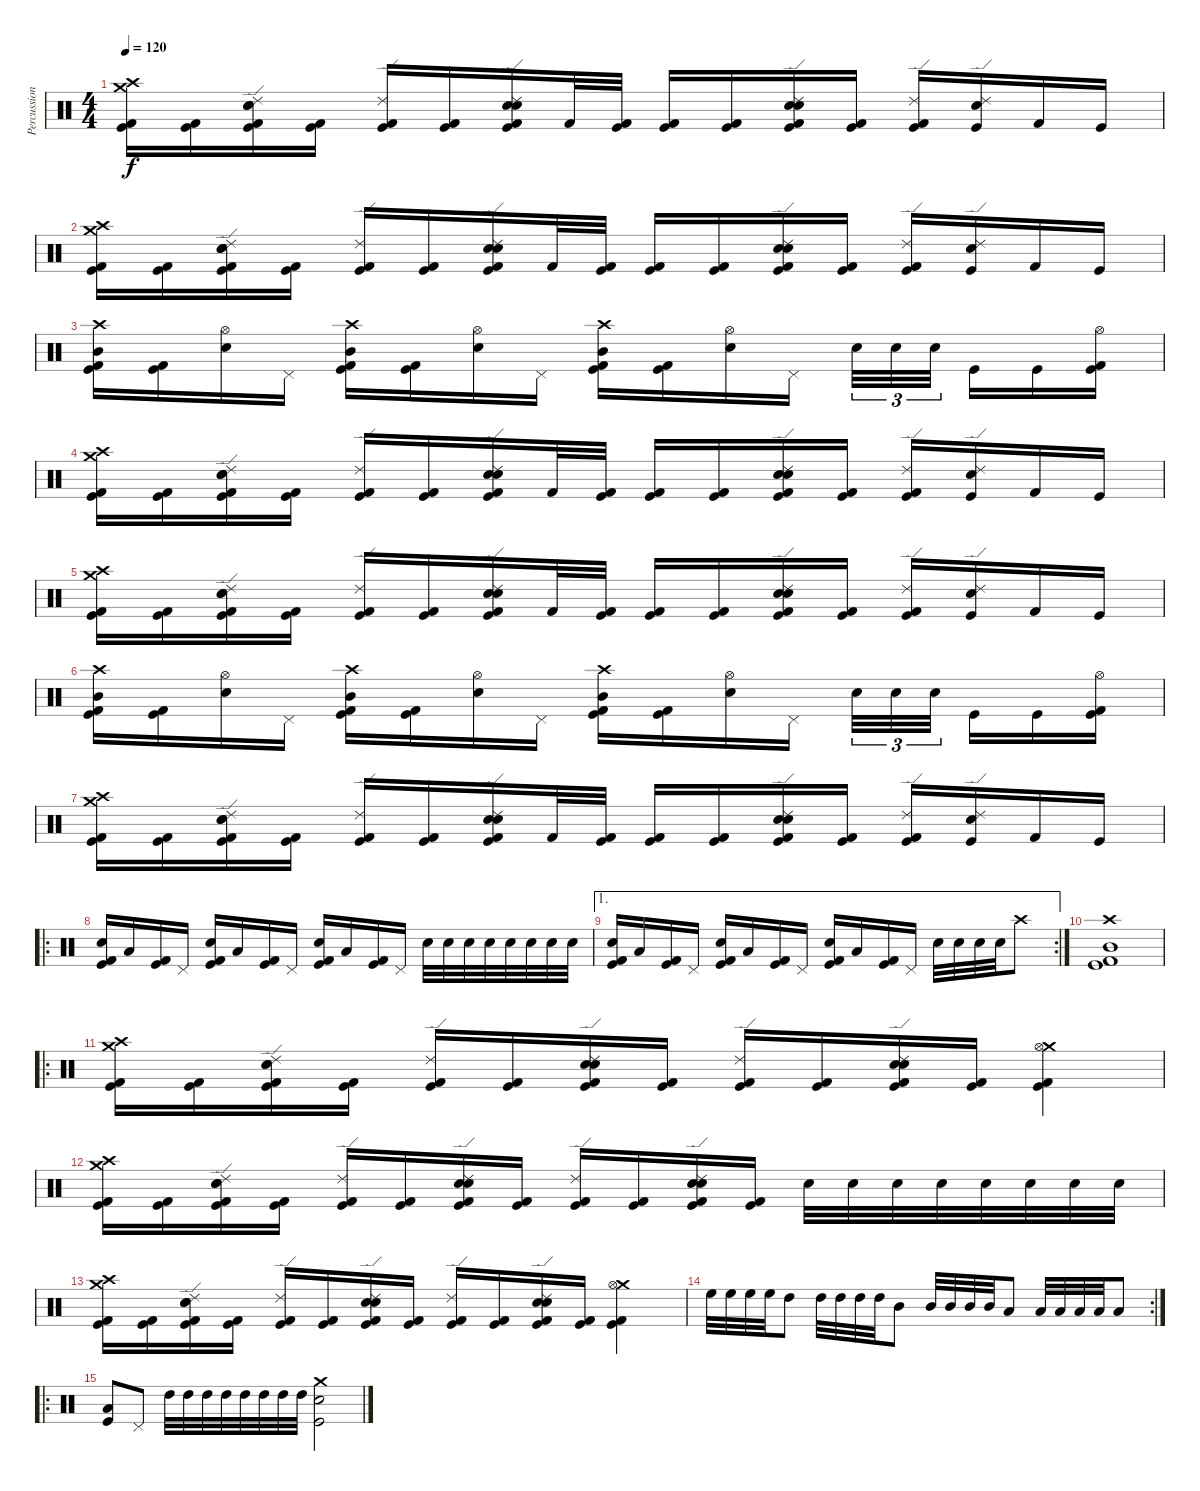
\track ("Percussion" "Percussion") {instrument percussion}
\staff {score}
\articulation defaults
\ts (4 4)
\tempo 120
\clef neutral
\ks c
("Crash high (hit)" "Crash medium (hit)" "Kick (hit) 2" "Kick (hit)").16{dy f} ("Kick (hit) 2" "Kick (hit)").16 ("Ride (edge) 2" "Electric Snare (hit)" "Snare (hit) 2" "Kick (hit) 2" "Kick (hit)").16 ("Kick (hit) 2" "Kick (hit)").16 ("Ride (edge) 2" "Kick (hit) 2" "Kick (hit)").16 ("Kick (hit) 2" "Kick (hit)").16 ("Ride (edge) 2" "Electric Snare (hit)" "Snare (hit) 2" "Kick (hit) 2" "Kick (hit)").16 "Kick (hit) 2".32 ("Kick (hit) 2" "Kick (hit)").32 ("Kick (hit) 2" "Kick (hit)").16 ("Kick (hit) 2" "Kick (hit)").16 ("Ride (edge) 2" "Electric Snare (hit)" "Snare (hit) 2" "Kick (hit) 2" "Kick (hit)").16 ("Kick (hit) 2" "Kick (hit)").16 ("Ride (edge) 2" "Kick (hit) 2" "Kick (hit)").16 ("Snare (hit) 2" "Kick (hit)" "Ride (edge) 2").16 "Kick (hit) 2".16 "Kick (hit)".16 |
("Crash high (hit)" "Crash medium (hit)" "Kick (hit) 2" "Kick (hit)").16 ("Kick (hit) 2" "Kick (hit)").16 ("Ride (edge) 2" "Electric Snare (hit)" "Snare (hit) 2" "Kick (hit) 2" "Kick (hit)").16 ("Kick (hit) 2" "Kick (hit)").16 ("Ride (edge) 2" "Kick (hit) 2" "Kick (hit)").16 ("Kick (hit) 2" "Kick (hit)").16 ("Ride (edge) 2" "Electric Snare (hit)" "Snare (hit) 2" "Kick (hit) 2" "Kick (hit)").16 "Kick (hit) 2".32 ("Kick (hit) 2" "Kick (hit)").32 ("Kick (hit) 2" "Kick (hit)").16 ("Kick (hit) 2" "Kick (hit)").16 ("Ride (edge) 2" "Electric Snare (hit)" "Snare (hit) 2" "Kick (hit) 2" "Kick (hit)").16 ("Kick (hit) 2" "Kick (hit)").16 ("Ride (edge) 2" "Kick (hit) 2" "Kick (hit)").16 ("Snare (hit) 2" "Kick (hit)" "Ride (edge) 2").16 "Kick (hit) 2".16 "Kick (hit)".16 |
("Crash high (hit)" "Mid Tom (hit)" "Kick (hit) 2" "Kick (hit)").16 ("Kick (hit)" "Kick (hit) 2").16 ("Snare (hit) 2" "Hi-Hat (open)").16 "Pedal Hi-Hat (hit)".16 ("Crash high (hit)" "Mid Tom (hit)" "Kick (hit) 2" "Kick (hit)").16 ("Kick (hit)" "Kick (hit) 2").16 ("Snare (hit) 2" "Hi-Hat (open)").16 "Pedal Hi-Hat (hit)".16 ("Crash high (hit)" "Mid Tom (hit)" "Kick (hit) 2" "Kick (hit)").16 ("Kick (hit)" "Kick (hit) 2").16 ("Snare (hit) 2" "Hi-Hat (open)").16 "Pedal Hi-Hat (hit)".16 "Snare (hit) 2".32{tu (3 2)} "Snare (hit) 2".32{tu (3 2)} "Snare (hit) 2".32{tu (3 2)} "Kick (hit)".16 "Kick (hit)".16 ("Kick (hit)" "Hi-Hat (open)" "Kick (hit) 2").16 |
("Crash high (hit)" "Crash medium (hit)" "Kick (hit) 2" "Kick (hit)").16 ("Kick (hit) 2" "Kick (hit)").16 ("Ride (edge) 2" "Electric Snare (hit)" "Snare (hit) 2" "Kick (hit) 2" "Kick (hit)").16 ("Kick (hit) 2" "Kick (hit)").16 ("Ride (edge) 2" "Kick (hit) 2" "Kick (hit)").16 ("Kick (hit) 2" "Kick (hit)").16 ("Ride (edge) 2" "Electric Snare (hit)" "Snare (hit) 2" "Kick (hit) 2" "Kick (hit)").16 "Kick (hit) 2".32 ("Kick (hit) 2" "Kick (hit)").32 ("Kick (hit) 2" "Kick (hit)").16 ("Kick (hit) 2" "Kick (hit)").16 ("Ride (edge) 2" "Electric Snare (hit)" "Snare (hit) 2" "Kick (hit) 2" "Kick (hit)").16 ("Kick (hit) 2" "Kick (hit)").16 ("Ride (edge) 2" "Kick (hit) 2" "Kick (hit)").16 ("Snare (hit) 2" "Kick (hit)" "Ride (edge) 2").16 "Kick (hit) 2".16 "Kick (hit)".16 |
("Crash high (hit)" "Crash medium (hit)" "Kick (hit) 2" "Kick (hit)").16 ("Kick (hit) 2" "Kick (hit)").16 ("Ride (edge) 2" "Electric Snare (hit)" "Snare (hit) 2" "Kick (hit) 2" "Kick (hit)").16 ("Kick (hit) 2" "Kick (hit)").16 ("Ride (edge) 2" "Kick (hit) 2" "Kick (hit)").16 ("Kick (hit) 2" "Kick (hit)").16 ("Ride (edge) 2" "Electric Snare (hit)" "Snare (hit) 2" "Kick (hit) 2" "Kick (hit)").16 "Kick (hit) 2".32 ("Kick (hit) 2" "Kick (hit)").32 ("Kick (hit) 2" "Kick (hit)").16 ("Kick (hit) 2" "Kick (hit)").16 ("Ride (edge) 2" "Electric Snare (hit)" "Snare (hit) 2" "Kick (hit) 2" "Kick (hit)").16 ("Kick (hit) 2" "Kick (hit)").16 ("Ride (edge) 2" "Kick (hit) 2" "Kick (hit)").16 ("Snare (hit) 2" "Kick (hit)" "Ride (edge) 2").16 "Kick (hit) 2".16 "Kick (hit)".16 |
("Crash high (hit)" "Mid Tom (hit)" "Kick (hit) 2" "Kick (hit)").16 ("Kick (hit)" "Kick (hit) 2").16 ("Snare (hit) 2" "Hi-Hat (open)").16 "Pedal Hi-Hat (hit)".16 ("Crash high (hit)" "Mid Tom (hit)" "Kick (hit) 2" "Kick (hit)").16 ("Kick (hit)" "Kick (hit) 2").16 ("Snare (hit) 2" "Hi-Hat (open)").16 "Pedal Hi-Hat (hit)".16 ("Crash high (hit)" "Mid Tom (hit)" "Kick (hit) 2" "Kick (hit)").16 ("Kick (hit)" "Kick (hit) 2").16 ("Snare (hit) 2" "Hi-Hat (open)").16 "Pedal Hi-Hat (hit)".16 "Snare (hit) 2".32{tu (3 2)} "Snare (hit) 2".32{tu (3 2)} "Snare (hit) 2".32{tu (3 2)} "Kick (hit)".16 "Kick (hit)".16 ("Kick (hit)" "Hi-Hat (open)" "Kick (hit) 2").16 |
("Crash high (hit)" "Crash medium (hit)" "Kick (hit) 2" "Kick (hit)").16 ("Kick (hit) 2" "Kick (hit)").16 ("Ride (edge) 2" "Electric Snare (hit)" "Snare (hit) 2" "Kick (hit) 2" "Kick (hit)").16 ("Kick (hit) 2" "Kick (hit)").16 ("Ride (edge) 2" "Kick (hit) 2" "Kick (hit)").16 ("Kick (hit) 2" "Kick (hit)").16 ("Ride (edge) 2" "Electric Snare (hit)" "Snare (hit) 2" "Kick (hit) 2" "Kick (hit)").16 "Kick (hit) 2".32 ("Kick (hit) 2" "Kick (hit)").32 ("Kick (hit) 2" "Kick (hit)").16 ("Kick (hit) 2" "Kick (hit)").16 ("Ride (edge) 2" "Electric Snare (hit)" "Snare (hit) 2" "Kick (hit) 2" "Kick (hit)").16 ("Kick (hit) 2" "Kick (hit)").16 ("Ride (edge) 2" "Kick (hit) 2" "Kick (hit)").16 ("Snare (hit) 2" "Kick (hit)" "Ride (edge) 2").16 "Kick (hit) 2".16 "Kick (hit)".16 |
\ro
("Kick (hit)" "Kick (hit) 2" "Snare (hit) 2").16 "Low Tom (hit)".16 ("Kick (hit)" "Kick (hit) 2").16 "Pedal Hi-Hat (hit)".16 ("Kick (hit)" "Kick (hit) 2" "Snare (hit) 2").16 "Low Tom (hit)".16 ("Kick (hit)" "Kick (hit) 2").16 "Pedal Hi-Hat (hit)".16 ("Kick (hit)" "Kick (hit) 2" "Snare (hit) 2").16 "Low Tom (hit)".16 ("Kick (hit)" "Kick (hit) 2").16 "Pedal Hi-Hat (hit)".16 "Snare (hit) 2".32 "Snare (hit) 2".32 "Snare (hit) 2".32 "Snare (hit) 2".32 "Snare (hit) 2".32 "Snare (hit) 2".32 "Snare (hit) 2".32 "Snare (hit) 2".32 |
\ae 1
\rc 2
("Kick (hit)" "Kick (hit) 2" "Snare (hit) 2").16 "Low Tom (hit)".16 ("Kick (hit)" "Kick (hit) 2").16 "Pedal Hi-Hat (hit)".16 ("Kick (hit)" "Kick (hit) 2" "Snare (hit) 2").16 "Low Tom (hit)".16 ("Kick (hit)" "Kick (hit) 2").16 "Pedal Hi-Hat (hit)".16 ("Kick (hit)" "Kick (hit) 2" "Snare (hit) 2").16 "Low Tom (hit)".16 ("Kick (hit)" "Kick (hit) 2").16 "Pedal Hi-Hat (hit)".16 "Snare (hit) 2".32 "Snare (hit) 2".32 "Snare (hit) 2".32 "Snare (hit) 2".32 "Crash high (hit)".8 |
("Crash high (hit)" "Kick (hit)" "Kick (hit) 2" "Mid Tom (hit)").1 |
\ro
("Crash high (hit)" "Crash medium (hit)" "Kick (hit) 2" "Kick (hit)").16 ("Kick (hit) 2" "Kick (hit)").16 ("Ride (edge) 2" "Electric Snare (hit)" "Snare (hit) 2" "Kick (hit) 2" "Kick (hit)").16 ("Kick (hit) 2" "Kick (hit)").16 ("Ride (edge) 2" "Kick (hit) 2" "Kick (hit)").16 ("Kick (hit) 2" "Kick (hit)").16 ("Ride (edge) 2" "Electric Snare (hit)" "Snare (hit) 2" "Kick (hit) 2" "Kick (hit)").16 ("Kick (hit) 2" "Kick (hit)").16 ("Ride (edge) 2" "Kick (hit) 2" "Kick (hit)").16 ("Kick (hit) 2" "Kick (hit)").16 ("Ride (edge) 2" "Electric Snare (hit)" "Snare (hit) 2" "Kick (hit) 2" "Kick (hit)").16 ("Kick (hit) 2" "Kick (hit)").16 ("Crash medium (hit)" "Kick (hit) 2" "Kick (hit)" "Hi-Hat (open)").4 |
("Crash high (hit)" "Crash medium (hit)" "Kick (hit) 2" "Kick (hit)").16 ("Kick (hit) 2" "Kick (hit)").16 ("Ride (edge) 2" "Electric Snare (hit)" "Snare (hit) 2" "Kick (hit) 2" "Kick (hit)").16 ("Kick (hit) 2" "Kick (hit)").16 ("Ride (edge) 2" "Kick (hit) 2" "Kick (hit)").16 ("Kick (hit) 2" "Kick (hit)").16 ("Ride (edge) 2" "Electric Snare (hit)" "Snare (hit) 2" "Kick (hit) 2" "Kick (hit)").16 ("Kick (hit) 2" "Kick (hit)").16 ("Ride (edge) 2" "Kick (hit) 2" "Kick (hit)").16 ("Kick (hit) 2" "Kick (hit)").16 ("Ride (edge) 2" "Electric Snare (hit)" "Snare (hit) 2" "Kick (hit) 2" "Kick (hit)").16 ("Kick (hit) 2" "Kick (hit)").16 "Snare (hit) 2".32 "Snare (hit) 2".32 "Snare (hit) 2".32 "Snare (hit) 2".32 "Snare (hit) 2".32 "Snare (hit) 2".32 "Snare (hit) 2".32 "Snare (hit) 2".32 |
("Crash high (hit)" "Crash medium (hit)" "Kick (hit) 2" "Kick (hit)").16 ("Kick (hit) 2" "Kick (hit)").16 ("Ride (edge) 2" "Electric Snare (hit)" "Snare (hit) 2" "Kick (hit) 2" "Kick (hit)").16 ("Kick (hit) 2" "Kick (hit)").16 ("Ride (edge) 2" "Kick (hit) 2" "Kick (hit)").16 ("Kick (hit) 2" "Kick (hit)").16 ("Ride (edge) 2" "Electric Snare (hit)" "Snare (hit) 2" "Kick (hit) 2" "Kick (hit)").16 ("Kick (hit) 2" "Kick (hit)").16 ("Ride (edge) 2" "Kick (hit) 2" "Kick (hit)").16 ("Kick (hit) 2" "Kick (hit)").16 ("Ride (edge) 2" "Electric Snare (hit)" "Snare (hit) 2" "Kick (hit) 2" "Kick (hit)").16 ("Kick (hit) 2" "Kick (hit)").16 ("Crash medium (hit)" "Kick (hit) 2" "Kick (hit)" "Hi-Hat (open)").4 |
\rc 2 "High Floor Tom (hit)".32 "High Floor Tom (hit)".32 "High Floor Tom (hit)".32 "High Floor Tom (hit)".32 "High Tom (hit)".8 "High Tom (hit)".32 "High Tom (hit)".32 "High Tom (hit)".32 "High Tom (hit)".32 "Mid Tom (hit)".8 "Mid Tom (hit)".32 "Mid Tom (hit)".32 "Mid Tom (hit)".32 "Mid Tom (hit)".32 "Low Tom (hit)".8 "Low Tom (hit)".32 "Low Tom (hit)".32 "Low Tom (hit)".32 "Low Tom (hit)".32 "Low Floor Tom (hit)".8
|
\ro
("Kick (hit)" "Low Tom (hit)").8 "Pedal Hi-Hat (hit)".8 "High Tom (hit)".32 "High Tom (hit)".32 "High Tom (hit)".32 "High Tom (hit)".32 "High Tom (hit)".32 "High Tom (hit)".32 "High Tom (hit)".32 "High Tom (hit)".32 ("Kick (hit)" "Crash medium (hit)" "Snare (hit) 2").2
